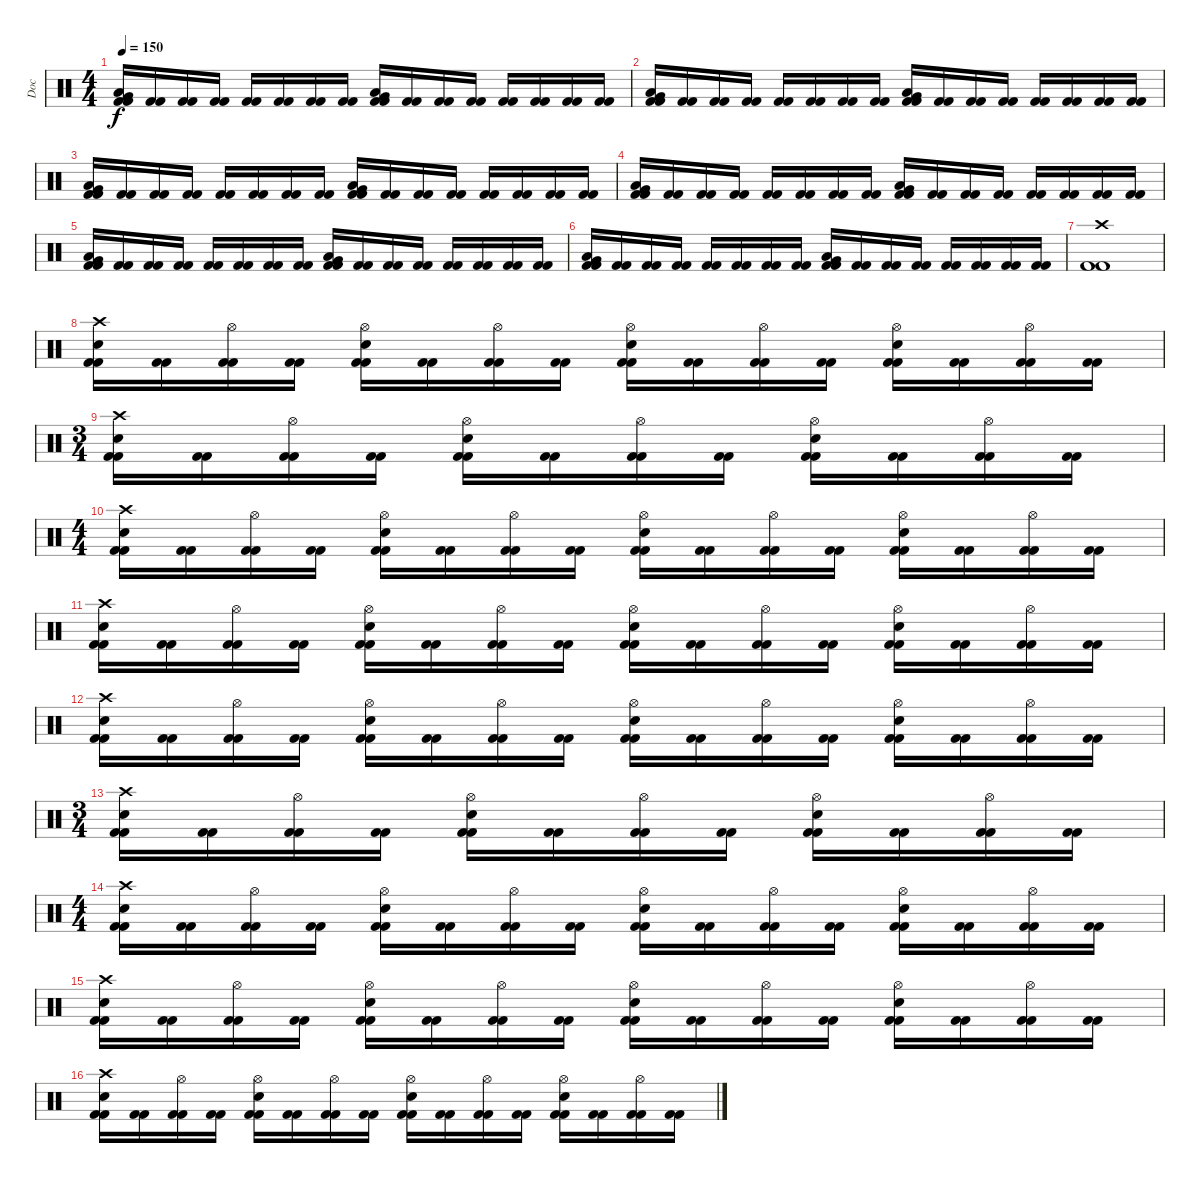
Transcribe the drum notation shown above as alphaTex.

\track ("Doc" "Doc") {instrument percussion}
\staff {score}
\articulation defaults
\ts (4 4)
\tempo 150
\clef neutral
\ks c
("Kick (hit) 2" "Very Low Tom (hit)" "Low Tom (hit)" "Kick (hit) 2").16{dy f} ("Kick (hit) 2" "Kick (hit) 2").16 ("Kick (hit) 2" "Kick (hit) 2").16 ("Kick (hit) 2" "Kick (hit) 2").16 ("Kick (hit) 2" "Kick (hit) 2").16 ("Kick (hit) 2" "Kick (hit) 2").16 ("Kick (hit) 2" "Kick (hit) 2").16 ("Kick (hit) 2" "Kick (hit) 2").16 ("Kick (hit) 2" "Very Low Tom (hit)" "Low Tom (hit)" "Kick (hit) 2").16 ("Kick (hit) 2" "Kick (hit) 2").16 ("Kick (hit) 2" "Kick (hit) 2").16 ("Kick (hit) 2" "Kick (hit) 2").16 ("Kick (hit) 2" "Kick (hit) 2").16 ("Kick (hit) 2" "Kick (hit) 2").16 ("Kick (hit) 2" "Kick (hit) 2").16 ("Kick (hit) 2" "Kick (hit) 2").16 |
("Kick (hit) 2" "Very Low Tom (hit)" "Low Tom (hit)" "Kick (hit) 2").16 ("Kick (hit) 2" "Kick (hit) 2").16 ("Kick (hit) 2" "Kick (hit) 2").16 ("Kick (hit) 2" "Kick (hit) 2").16 ("Kick (hit) 2" "Kick (hit) 2").16 ("Kick (hit) 2" "Kick (hit) 2").16 ("Kick (hit) 2" "Kick (hit) 2").16 ("Kick (hit) 2" "Kick (hit) 2").16 ("Kick (hit) 2" "Very Low Tom (hit)" "Low Tom (hit)" "Kick (hit) 2").16 ("Kick (hit) 2" "Kick (hit) 2").16 ("Kick (hit) 2" "Kick (hit) 2").16 ("Kick (hit) 2" "Kick (hit) 2").16 ("Kick (hit) 2" "Kick (hit) 2").16 ("Kick (hit) 2" "Kick (hit) 2").16 ("Kick (hit) 2" "Kick (hit) 2").16 ("Kick (hit) 2" "Kick (hit) 2").16 |
("Kick (hit) 2" "Very Low Tom (hit)" "Low Tom (hit)" "Kick (hit) 2").16 ("Kick (hit) 2" "Kick (hit) 2").16 ("Kick (hit) 2" "Kick (hit) 2").16 ("Kick (hit) 2" "Kick (hit) 2").16 ("Kick (hit) 2" "Kick (hit) 2").16 ("Kick (hit) 2" "Kick (hit) 2").16 ("Kick (hit) 2" "Kick (hit) 2").16 ("Kick (hit) 2" "Kick (hit) 2").16 ("Kick (hit) 2" "Very Low Tom (hit)" "Low Tom (hit)" "Kick (hit) 2").16 ("Kick (hit) 2" "Kick (hit) 2").16 ("Kick (hit) 2" "Kick (hit) 2").16 ("Kick (hit) 2" "Kick (hit) 2").16 ("Kick (hit) 2" "Kick (hit) 2").16 ("Kick (hit) 2" "Kick (hit) 2").16 ("Kick (hit) 2" "Kick (hit) 2").16 ("Kick (hit) 2" "Kick (hit) 2").16 |
("Kick (hit) 2" "Very Low Tom (hit)" "Low Tom (hit)" "Kick (hit) 2").16 ("Kick (hit) 2" "Kick (hit) 2").16 ("Kick (hit) 2" "Kick (hit) 2").16 ("Kick (hit) 2" "Kick (hit) 2").16 ("Kick (hit) 2" "Kick (hit) 2").16 ("Kick (hit) 2" "Kick (hit) 2").16 ("Kick (hit) 2" "Kick (hit) 2").16 ("Kick (hit) 2" "Kick (hit) 2").16 ("Kick (hit) 2" "Very Low Tom (hit)" "Low Tom (hit)" "Kick (hit) 2").16 ("Kick (hit) 2" "Kick (hit) 2").16 ("Kick (hit) 2" "Kick (hit) 2").16 ("Kick (hit) 2" "Kick (hit) 2").16 ("Kick (hit) 2" "Kick (hit) 2").16 ("Kick (hit) 2" "Kick (hit) 2").16 ("Kick (hit) 2" "Kick (hit) 2").16 ("Kick (hit) 2" "Kick (hit) 2").16 |
("Kick (hit) 2" "Very Low Tom (hit)" "Low Tom (hit)" "Kick (hit) 2").16 ("Kick (hit) 2" "Kick (hit) 2").16 ("Kick (hit) 2" "Kick (hit) 2").16 ("Kick (hit) 2" "Kick (hit) 2").16 ("Kick (hit) 2" "Kick (hit) 2").16 ("Kick (hit) 2" "Kick (hit) 2").16 ("Kick (hit) 2" "Kick (hit) 2").16 ("Kick (hit) 2" "Kick (hit) 2").16 ("Kick (hit) 2" "Very Low Tom (hit)" "Low Tom (hit)" "Kick (hit) 2").16 ("Kick (hit) 2" "Kick (hit) 2").16 ("Kick (hit) 2" "Kick (hit) 2").16 ("Kick (hit) 2" "Kick (hit) 2").16 ("Kick (hit) 2" "Kick (hit) 2").16 ("Kick (hit) 2" "Kick (hit) 2").16 ("Kick (hit) 2" "Kick (hit) 2").16 ("Kick (hit) 2" "Kick (hit) 2").16 |
("Kick (hit) 2" "Very Low Tom (hit)" "Low Tom (hit)" "Kick (hit) 2").16 ("Kick (hit) 2" "Kick (hit) 2").16 ("Kick (hit) 2" "Kick (hit) 2").16 ("Kick (hit) 2" "Kick (hit) 2").16 ("Kick (hit) 2" "Kick (hit) 2").16 ("Kick (hit) 2" "Kick (hit) 2").16 ("Kick (hit) 2" "Kick (hit) 2").16 ("Kick (hit) 2" "Kick (hit) 2").16 ("Kick (hit) 2" "Very Low Tom (hit)" "Low Tom (hit)" "Kick (hit) 2").16 ("Kick (hit) 2" "Kick (hit) 2").16 ("Kick (hit) 2" "Kick (hit) 2").16 ("Kick (hit) 2" "Kick (hit) 2").16 ("Kick (hit) 2" "Kick (hit) 2").16 ("Kick (hit) 2" "Kick (hit) 2").16 ("Kick (hit) 2" "Kick (hit) 2").16 ("Kick (hit) 2" "Kick (hit) 2").16 |
("Crash high (hit)" "Kick (hit) 2" "Kick (hit) 2").1 |
("Kick (hit) 2" "Crash high (hit)" "Electric Snare (hit)" "Kick (hit) 2").16 ("Kick (hit) 2" "Kick (hit) 2").16 ("Kick (hit) 2" "Hi-Hat (open)" "Kick (hit) 2").16 ("Kick (hit) 2" "Kick (hit) 2").16 ("Kick (hit) 2" "Hi-Hat (open)" "Electric Snare (hit)" "Kick (hit) 2").16 ("Kick (hit) 2" "Kick (hit) 2").16 ("Kick (hit) 2" "Hi-Hat (open)" "Kick (hit) 2").16 ("Kick (hit) 2" "Kick (hit) 2").16 ("Kick (hit) 2" "Hi-Hat (open)" "Electric Snare (hit)" "Kick (hit) 2").16 ("Kick (hit) 2" "Kick (hit) 2").16 ("Kick (hit) 2" "Hi-Hat (open)" "Kick (hit) 2").16 ("Kick (hit) 2" "Kick (hit) 2").16 ("Kick (hit) 2" "Hi-Hat (open)" "Electric Snare (hit)" "Kick (hit) 2").16 ("Kick (hit) 2" "Kick (hit) 2").16 ("Kick (hit) 2" "Hi-Hat (open)" "Kick (hit) 2").16 ("Kick (hit) 2" "Kick (hit) 2").16 |
\ts (3 4)
("Kick (hit) 2" "Crash high (hit)" "Electric Snare (hit)" "Kick (hit) 2").16 ("Kick (hit) 2" "Kick (hit) 2").16 ("Kick (hit) 2" "Hi-Hat (open)" "Kick (hit) 2").16 ("Kick (hit) 2" "Kick (hit) 2").16 ("Kick (hit) 2" "Hi-Hat (open)" "Electric Snare (hit)" "Kick (hit) 2").16 ("Kick (hit) 2" "Kick (hit) 2").16 ("Kick (hit) 2" "Hi-Hat (open)" "Kick (hit) 2").16 ("Kick (hit) 2" "Kick (hit) 2").16 ("Kick (hit) 2" "Hi-Hat (open)" "Electric Snare (hit)" "Kick (hit) 2").16 ("Kick (hit) 2" "Kick (hit) 2").16 ("Kick (hit) 2" "Hi-Hat (open)" "Kick (hit) 2").16 ("Kick (hit) 2" "Kick (hit) 2").16 |
\ts (4 4)
("Kick (hit) 2" "Crash high (hit)" "Electric Snare (hit)" "Kick (hit) 2").16 ("Kick (hit) 2" "Kick (hit) 2").16 ("Kick (hit) 2" "Hi-Hat (open)" "Kick (hit) 2").16 ("Kick (hit) 2" "Kick (hit) 2").16 ("Kick (hit) 2" "Hi-Hat (open)" "Electric Snare (hit)" "Kick (hit) 2").16 ("Kick (hit) 2" "Kick (hit) 2").16 ("Kick (hit) 2" "Hi-Hat (open)" "Kick (hit) 2").16 ("Kick (hit) 2" "Kick (hit) 2").16 ("Kick (hit) 2" "Hi-Hat (open)" "Electric Snare (hit)" "Kick (hit) 2").16 ("Kick (hit) 2" "Kick (hit) 2").16 ("Kick (hit) 2" "Hi-Hat (open)" "Kick (hit) 2").16 ("Kick (hit) 2" "Kick (hit) 2").16 ("Kick (hit) 2" "Hi-Hat (open)" "Electric Snare (hit)" "Kick (hit) 2").16 ("Kick (hit) 2" "Kick (hit) 2").16 ("Kick (hit) 2" "Hi-Hat (open)" "Kick (hit) 2").16 ("Kick (hit) 2" "Kick (hit) 2").16 |
("Kick (hit) 2" "Crash high (hit)" "Electric Snare (hit)" "Kick (hit) 2").16 ("Kick (hit) 2" "Kick (hit) 2").16 ("Kick (hit) 2" "Hi-Hat (open)" "Kick (hit) 2").16 ("Kick (hit) 2" "Kick (hit) 2").16 ("Kick (hit) 2" "Hi-Hat (open)" "Electric Snare (hit)" "Kick (hit) 2").16 ("Kick (hit) 2" "Kick (hit) 2").16 ("Kick (hit) 2" "Hi-Hat (open)" "Kick (hit) 2").16 ("Kick (hit) 2" "Kick (hit) 2").16 ("Kick (hit) 2" "Hi-Hat (open)" "Electric Snare (hit)" "Kick (hit) 2").16 ("Kick (hit) 2" "Kick (hit) 2").16 ("Kick (hit) 2" "Hi-Hat (open)" "Kick (hit) 2").16 ("Kick (hit) 2" "Kick (hit) 2").16 ("Kick (hit) 2" "Hi-Hat (open)" "Electric Snare (hit)" "Kick (hit) 2").16 ("Kick (hit) 2" "Kick (hit) 2").16 ("Kick (hit) 2" "Hi-Hat (open)" "Kick (hit) 2").16 ("Kick (hit) 2" "Kick (hit) 2").16 |
("Kick (hit) 2" "Crash high (hit)" "Electric Snare (hit)" "Kick (hit) 2").16 ("Kick (hit) 2" "Kick (hit) 2").16 ("Kick (hit) 2" "Hi-Hat (open)" "Kick (hit) 2").16 ("Kick (hit) 2" "Kick (hit) 2").16 ("Kick (hit) 2" "Hi-Hat (open)" "Electric Snare (hit)" "Kick (hit) 2").16 ("Kick (hit) 2" "Kick (hit) 2").16 ("Kick (hit) 2" "Hi-Hat (open)" "Kick (hit) 2").16 ("Kick (hit) 2" "Kick (hit) 2").16 ("Kick (hit) 2" "Hi-Hat (open)" "Electric Snare (hit)" "Kick (hit) 2").16 ("Kick (hit) 2" "Kick (hit) 2").16 ("Kick (hit) 2" "Hi-Hat (open)" "Kick (hit) 2").16 ("Kick (hit) 2" "Kick (hit) 2").16 ("Kick (hit) 2" "Hi-Hat (open)" "Electric Snare (hit)" "Kick (hit) 2").16 ("Kick (hit) 2" "Kick (hit) 2").16 ("Kick (hit) 2" "Hi-Hat (open)" "Kick (hit) 2").16 ("Kick (hit) 2" "Kick (hit) 2").16 |
\ts (3 4)
("Kick (hit) 2" "Crash high (hit)" "Electric Snare (hit)" "Kick (hit) 2").16 ("Kick (hit) 2" "Kick (hit) 2").16 ("Kick (hit) 2" "Hi-Hat (open)" "Kick (hit) 2").16 ("Kick (hit) 2" "Kick (hit) 2").16 ("Kick (hit) 2" "Hi-Hat (open)" "Electric Snare (hit)" "Kick (hit) 2").16 ("Kick (hit) 2" "Kick (hit) 2").16 ("Kick (hit) 2" "Hi-Hat (open)" "Kick (hit) 2").16 ("Kick (hit) 2" "Kick (hit) 2").16 ("Kick (hit) 2" "Hi-Hat (open)" "Electric Snare (hit)" "Kick (hit) 2").16 ("Kick (hit) 2" "Kick (hit) 2").16 ("Kick (hit) 2" "Hi-Hat (open)" "Kick (hit) 2").16 ("Kick (hit) 2" "Kick (hit) 2").16 |
\ts (4 4)
("Kick (hit) 2" "Crash high (hit)" "Electric Snare (hit)" "Kick (hit) 2").16 ("Kick (hit) 2" "Kick (hit) 2").16 ("Kick (hit) 2" "Hi-Hat (open)" "Kick (hit) 2").16 ("Kick (hit) 2" "Kick (hit) 2").16 ("Kick (hit) 2" "Hi-Hat (open)" "Electric Snare (hit)" "Kick (hit) 2").16 ("Kick (hit) 2" "Kick (hit) 2").16 ("Kick (hit) 2" "Hi-Hat (open)" "Kick (hit) 2").16 ("Kick (hit) 2" "Kick (hit) 2").16 ("Kick (hit) 2" "Hi-Hat (open)" "Electric Snare (hit)" "Kick (hit) 2").16 ("Kick (hit) 2" "Kick (hit) 2").16 ("Kick (hit) 2" "Hi-Hat (open)" "Kick (hit) 2").16 ("Kick (hit) 2" "Kick (hit) 2").16 ("Kick (hit) 2" "Hi-Hat (open)" "Electric Snare (hit)" "Kick (hit) 2").16 ("Kick (hit) 2" "Kick (hit) 2").16 ("Kick (hit) 2" "Hi-Hat (open)" "Kick (hit) 2").16 ("Kick (hit) 2" "Kick (hit) 2").16 |
("Kick (hit) 2" "Crash high (hit)" "Electric Snare (hit)" "Kick (hit) 2").16 ("Kick (hit) 2" "Kick (hit) 2").16 ("Kick (hit) 2" "Hi-Hat (open)" "Kick (hit) 2").16 ("Kick (hit) 2" "Kick (hit) 2").16 ("Kick (hit) 2" "Hi-Hat (open)" "Electric Snare (hit)" "Kick (hit) 2").16 ("Kick (hit) 2" "Kick (hit) 2").16 ("Kick (hit) 2" "Hi-Hat (open)" "Kick (hit) 2").16 ("Kick (hit) 2" "Kick (hit) 2").16 ("Kick (hit) 2" "Hi-Hat (open)" "Electric Snare (hit)" "Kick (hit) 2").16 ("Kick (hit) 2" "Kick (hit) 2").16 ("Kick (hit) 2" "Hi-Hat (open)" "Kick (hit) 2").16 ("Kick (hit) 2" "Kick (hit) 2").16 ("Kick (hit) 2" "Hi-Hat (open)" "Electric Snare (hit)" "Kick (hit) 2").16 ("Kick (hit) 2" "Kick (hit) 2").16 ("Kick (hit) 2" "Hi-Hat (open)" "Kick (hit) 2").16 ("Kick (hit) 2" "Kick (hit) 2").16 |
("Kick (hit) 2" "Crash high (hit)" "Electric Snare (hit)" "Kick (hit) 2").16 ("Kick (hit) 2" "Kick (hit) 2").16 ("Kick (hit) 2" "Hi-Hat (open)" "Kick (hit) 2").16 ("Kick (hit) 2" "Kick (hit) 2").16 ("Kick (hit) 2" "Hi-Hat (open)" "Electric Snare (hit)" "Kick (hit) 2").16 ("Kick (hit) 2" "Kick (hit) 2").16 ("Kick (hit) 2" "Hi-Hat (open)" "Kick (hit) 2").16 ("Kick (hit) 2" "Kick (hit) 2").16 ("Kick (hit) 2" "Hi-Hat (open)" "Electric Snare (hit)" "Kick (hit) 2").16 ("Kick (hit) 2" "Kick (hit) 2").16 ("Kick (hit) 2" "Hi-Hat (open)" "Kick (hit) 2").16 ("Kick (hit) 2" "Kick (hit) 2").16 ("Kick (hit) 2" "Hi-Hat (open)" "Electric Snare (hit)" "Kick (hit) 2").16 ("Kick (hit) 2" "Kick (hit) 2").16 ("Kick (hit) 2" "Hi-Hat (open)" "Kick (hit) 2").16 ("Kick (hit) 2" "Kick (hit) 2").16
